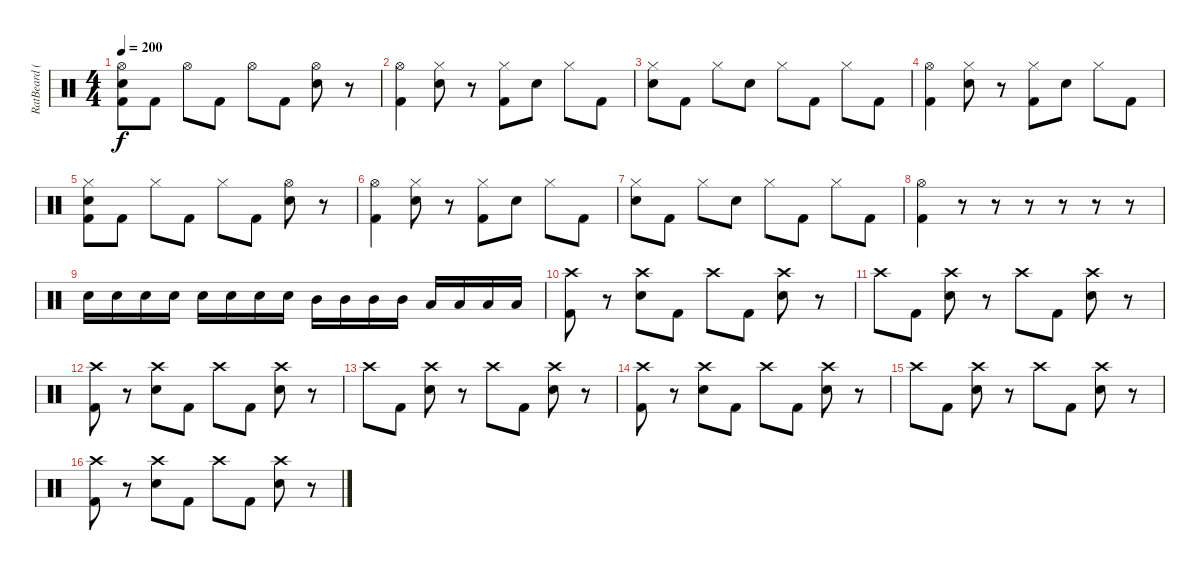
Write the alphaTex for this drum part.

\track ("RatBeard (Drum)" "RatBeard (") {instrument percussion}
\staff {score}
\articulation defaults
\ts (4 4)
\tempo 200
\clef neutral
\ks c
("Hi-Hat (open)" "Electric Snare (hit)" "Kick (hit) 2").8{dy f} "Kick (hit) 2".8 "Hi-Hat (open)".8 "Kick (hit) 2".8 "Hi-Hat (open)".8 "Kick (hit) 2".8 ("Hi-Hat (open)" "Electric Snare (hit)").8 r.8 |
("Hi-Hat (open)" "Kick (hit) 2").4 ("Hi-Hat (closed)" "Electric Snare (hit)").8 r.8 ("Hi-Hat (closed)" "Kick (hit) 2").8 "Electric Snare (hit)".8 "Hi-Hat (closed)".8 "Kick (hit) 2".8 |
("Hi-Hat (closed)" "Electric Snare (hit)").8 "Kick (hit) 2".8 "Hi-Hat (closed)".8 "Electric Snare (hit)".8 "Hi-Hat (closed)".8 "Kick (hit) 2".8 "Hi-Hat (closed)".8 "Kick (hit) 2".8 |
("Hi-Hat (open)" "Kick (hit) 2").4 ("Hi-Hat (closed)" "Electric Snare (hit)").8 r.8 ("Hi-Hat (closed)" "Kick (hit) 2").8 "Electric Snare (hit)".8 "Hi-Hat (closed)".8 "Kick (hit) 2".8 |
("Hi-Hat (closed)" "Electric Snare (hit)" "Kick (hit) 2").8 "Kick (hit) 2".8 "Hi-Hat (closed)".8 "Kick (hit) 2".8 "Hi-Hat (closed)".8 "Kick (hit) 2".8 ("Hi-Hat (open)" "Electric Snare (hit)").8 r.8 |
("Hi-Hat (open)" "Kick (hit) 2").4 ("Hi-Hat (closed)" "Electric Snare (hit)").8 r.8 ("Hi-Hat (closed)" "Kick (hit) 2").8 "Electric Snare (hit)".8 "Hi-Hat (closed)".8 "Kick (hit) 2".8 |
("Hi-Hat (closed)" "Electric Snare (hit)").8 "Kick (hit) 2".8 "Hi-Hat (closed)".8 "Electric Snare (hit)".8 "Hi-Hat (closed)".8 "Kick (hit) 2".8 "Hi-Hat (closed)".8 "Kick (hit) 2".8 |
("Hi-Hat (open)" "Kick (hit) 2").4 r.8 r.8 r.8 r.8 r.8 r.8 |
"Electric Snare (hit)".16 "Electric Snare (hit)".16 "Electric Snare (hit)".16 "Electric Snare (hit)".16 "Electric Snare (hit)".16 "Electric Snare (hit)".16 "Electric Snare (hit)".16 "Electric Snare (hit)".16 "Mid Tom (hit)".16 "Mid Tom (hit)".16 "Mid Tom (hit)".16 "Mid Tom (hit)".16 "Low Tom (hit)".16 "Low Tom (hit)".16 "Low Tom (hit)".16 "Low Tom (hit)".16 |
("Crash high (hit)" "Kick (hit) 2").8 r.8 ("Crash high (hit)" "Electric Snare (hit)").8 "Kick (hit) 2".8 "Crash high (hit)".8 "Kick (hit) 2".8 ("Crash high (hit)" "Electric Snare (hit)").8 r.8 |
"Crash high (hit)".8 "Kick (hit) 2".8 ("Crash high (hit)" "Electric Snare (hit)").8 r.8 "Crash high (hit)".8 "Kick (hit) 2".8 ("Crash high (hit)" "Electric Snare (hit)").8 r.8 |
("Crash high (hit)" "Kick (hit) 2").8 r.8 ("Crash high (hit)" "Electric Snare (hit)").8 "Kick (hit) 2".8 "Crash high (hit)".8 "Kick (hit) 2".8 ("Crash high (hit)" "Electric Snare (hit)").8 r.8 |
"Crash high (hit)".8 "Kick (hit) 2".8 ("Crash high (hit)" "Electric Snare (hit)").8 r.8 "Crash high (hit)".8 "Kick (hit) 2".8 ("Crash high (hit)" "Electric Snare (hit)").8 r.8 |
("Crash high (hit)" "Kick (hit) 2").8 r.8 ("Crash high (hit)" "Electric Snare (hit)").8 "Kick (hit) 2".8 "Crash high (hit)".8 "Kick (hit) 2".8 ("Crash high (hit)" "Electric Snare (hit)").8 r.8 |
"Crash high (hit)".8 "Kick (hit) 2".8 ("Crash high (hit)" "Electric Snare (hit)").8 r.8 "Crash high (hit)".8 "Kick (hit) 2".8 ("Crash high (hit)" "Electric Snare (hit)").8 r.8 |
("Crash high (hit)" "Kick (hit) 2").8 r.8 ("Crash high (hit)" "Electric Snare (hit)").8 "Kick (hit) 2".8 "Crash high (hit)".8 "Kick (hit) 2".8 ("Crash high (hit)" "Electric Snare (hit)").8 r.8
